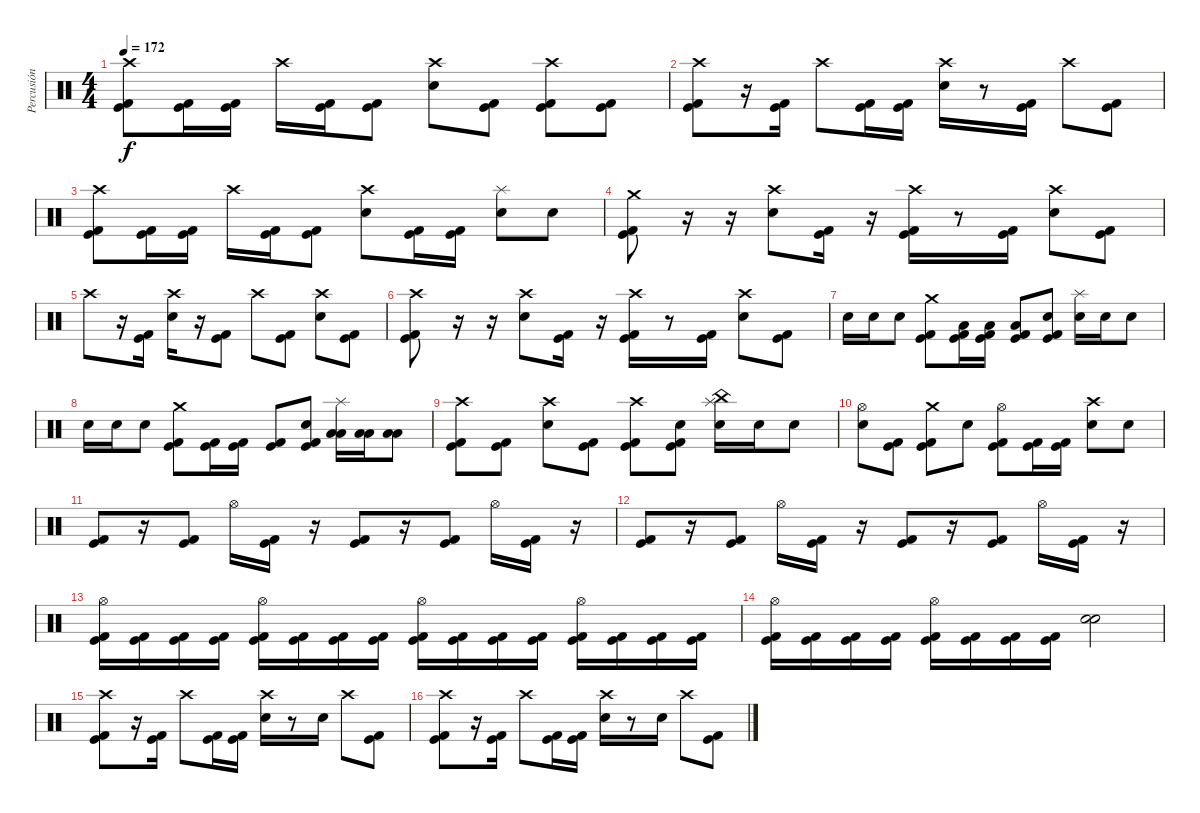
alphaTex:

\track ("Percusión" "Percusión") {instrument percussion}
\staff {score}
\articulation defaults
\ts (4 4)
\tempo 172
\clef neutral
\ks c
("Crash high (hit)" "Kick (hit)" "Kick (hit) 2").8{dy f} ("Kick (hit)" "Kick (hit) 2").16 ("Kick (hit)" "Kick (hit) 2").16 "Crash high (hit)".16 ("Kick (hit)" "Kick (hit) 2").16 ("Kick (hit)" "Kick (hit) 2").8 ("Crash high (hit)" "Electric Snare (hit)").8 ("Kick (hit)" "Kick (hit) 2").8 ("Crash high (hit)" "Kick (hit)" "Kick (hit) 2").8 ("Kick (hit)" "Kick (hit) 2").8 |
("Crash high (hit)" "Kick (hit)" "Kick (hit) 2").8 r.16 ("Kick (hit)" "Kick (hit) 2").16 "Crash high (hit)".8 ("Kick (hit)" "Kick (hit) 2").16 ("Kick (hit)" "Kick (hit) 2").16 ("Crash high (hit)" "Electric Snare (hit)").16 r.8 ("Kick (hit)" "Kick (hit) 2").16 "Crash high (hit)".8 ("Kick (hit)" "Kick (hit) 2").8 |
("Crash high (hit)" "Kick (hit)" "Kick (hit) 2").8 ("Kick (hit)" "Kick (hit) 2").16 ("Kick (hit)" "Kick (hit) 2").16 "Crash high (hit)".16 ("Kick (hit)" "Kick (hit) 2").16 ("Kick (hit)" "Kick (hit) 2").8 ("Crash high (hit)" "Electric Snare (hit)").8 ("Kick (hit)" "Kick (hit) 2").16 ("Kick (hit) 2" "Kick (hit)").16 ("Splash (hit)" "Electric Snare (hit)").8 "Electric Snare (hit)".8 |
("Crash medium (hit)" "Kick (hit)" "Kick (hit) 2").8 r.16 r.16 ("Crash high (hit)" "Electric Snare (hit)").8 ("Kick (hit) 2" "Kick (hit)").16 r.16 ("Crash high (hit)" "Kick (hit) 2" "Kick (hit)").16 r.8 ("Kick (hit)" "Kick (hit) 2").16 ("Crash high (hit)" "Electric Snare (hit)").8 ("Kick (hit)" "Kick (hit) 2").8 |
"Crash high (hit)".8 r.16 ("Kick (hit)" "Kick (hit) 2").16 ("Crash high (hit)" "Electric Snare (hit)").16 r.16 ("Kick (hit)" "Kick (hit) 2").8 "Crash high (hit)".8 ("Kick (hit)" "Kick (hit) 2").8 ("Crash high (hit)" "Electric Snare (hit)").8 ("Kick (hit)" "Kick (hit) 2").8 |
("Crash high (hit)" "Kick (hit)" "Kick (hit) 2").8 r.16 r.16 ("Crash high (hit)" "Electric Snare (hit)").8 ("Kick (hit) 2" "Kick (hit)").16 r.16 ("Crash high (hit)" "Kick (hit) 2" "Kick (hit)").16 r.8 ("Kick (hit)" "Kick (hit) 2").16 ("Crash high (hit)" "Electric Snare (hit)").8 ("Kick (hit)" "Kick (hit) 2").8 |
"Electric Snare (hit)".16 "Electric Snare (hit)".16 "Electric Snare (hit)".8 ("Crash medium (hit)" "Kick (hit) 2" "Kick (hit)").8 ("Low Tom (hit)" "Kick (hit)" "Kick (hit) 2").16 ("Low Tom (hit)" "Kick (hit)" "Kick (hit) 2").16 ("Low Tom (hit)" "Kick (hit)" "Kick (hit) 2").8 ("Electric Snare (hit)" "Kick (hit) 2" "Kick (hit)").8 ("Splash (hit)" "Electric Snare (hit)").16 "Electric Snare (hit)".16 "Electric Snare (hit)".8 |
"Electric Snare (hit)".16 "Electric Snare (hit)".16 "Electric Snare (hit)".8 ("Crash medium (hit)" "Kick (hit) 2" "Kick (hit)").8 ("Kick (hit)" "Kick (hit) 2").16 ("Kick (hit)" "Kick (hit) 2").16 ("Kick (hit)" "Kick (hit) 2").8 ("Electric Snare (hit)" "Kick (hit) 2" "Kick (hit)").8 ("Splash (hit)" "Low Tom (hit)" "Low Tom (hit)").16 ("Low Tom (hit)" "Low Tom (hit)").16 ("Low Floor Tom (hit)" "Low Floor Tom (hit)").8 |
("Crash high (hit)" "Kick (hit)" "Kick (hit) 2").8 ("Kick (hit)" "Kick (hit) 2").8 ("Crash high (hit)" "Electric Snare (hit)").8 ("Kick (hit)" "Kick (hit) 2").8 ("Crash high (hit)" "Kick (hit)" "Kick (hit) 2").8 ("Electric Snare (hit)" "Kick (hit)" "Kick (hit) 2").8 ("Splash (hit)" "China (hit)" "Electric Snare (hit)").16 "Electric Snare (hit)".16 "Electric Snare (hit)".8 |
("Hi-Hat (open)" "Electric Snare (hit)").8 ("Kick (hit)" "Kick (hit) 2").8 ("Crash medium (hit)" "Kick (hit)" "Kick (hit) 2").8 "Electric Snare (hit)".8 ("Hi-Hat (open)" "Kick (hit)" "Kick (hit) 2").8 ("Kick (hit)" "Kick (hit) 2").16 ("Kick (hit)" "Kick (hit) 2").16 ("Crash high (hit)" "Electric Snare (hit)").8 "Electric Snare (hit)".8 |
("Kick (hit)" "Kick (hit) 2").8 r.16 ("Kick (hit) 2" "Kick (hit)").8 "Hi-Hat (open)".16 ("Kick (hit)" "Kick (hit) 2").16 r.16 ("Kick (hit)" "Kick (hit) 2").8 r.16 ("Kick (hit)" "Kick (hit) 2").8 "Hi-Hat (open)".16 ("Kick (hit) 2" "Kick (hit)").16 r.16 |
("Kick (hit)" "Kick (hit) 2").8 r.16 ("Kick (hit) 2" "Kick (hit)").8 "Hi-Hat (open)".16 ("Kick (hit)" "Kick (hit) 2").16 r.16 ("Kick (hit)" "Kick (hit) 2").8 r.16 ("Kick (hit)" "Kick (hit) 2").8 "Hi-Hat (open)".16 ("Kick (hit) 2" "Kick (hit)").16 r.16 |
("Hi-Hat (open)" "Kick (hit)" "Kick (hit) 2").16 ("Kick (hit)" "Kick (hit) 2").16 ("Kick (hit)" "Kick (hit) 2").16 ("Kick (hit)" "Kick (hit) 2").16 ("Hi-Hat (open)" "Kick (hit)" "Kick (hit) 2").16 ("Kick (hit)" "Kick (hit) 2").16 ("Kick (hit)" "Kick (hit) 2").16 ("Kick (hit)" "Kick (hit) 2").16 ("Hi-Hat (open)" "Kick (hit)" "Kick (hit) 2").16 ("Kick (hit)" "Kick (hit) 2").16 ("Kick (hit)" "Kick (hit) 2").16 ("Kick (hit)" "Kick (hit) 2").16 ("Hi-Hat (open)" "Kick (hit)" "Kick (hit) 2").16 ("Kick (hit)" "Kick (hit) 2").16 ("Kick (hit)" "Kick (hit) 2").16 ("Kick (hit)" "Kick (hit) 2").16 |
("Hi-Hat (open)" "Kick (hit)" "Kick (hit) 2").16 ("Kick (hit)" "Kick (hit) 2").16 ("Kick (hit)" "Kick (hit) 2").16 ("Kick (hit)" "Kick (hit) 2").16 ("Hi-Hat (open)" "Kick (hit)" "Kick (hit) 2").16 ("Kick (hit)" "Kick (hit) 2").16 ("Kick (hit)" "Kick (hit) 2").16 ("Kick (hit)" "Kick (hit) 2").16 ("Electric Snare (hit)" "Electric Snare (hit)").2 |
("Crash high (hit)" "Kick (hit)" "Kick (hit) 2").8 r.16 ("Kick (hit)" "Kick (hit) 2").16 "Crash high (hit)".8 ("Kick (hit)" "Kick (hit) 2").16 ("Kick (hit)" "Kick (hit) 2").16 ("Crash high (hit)" "Electric Snare (hit)").16 r.8 "Electric Snare (hit)".16 "Crash high (hit)".8 ("Kick (hit)" "Kick (hit) 2").8 |
("Crash high (hit)" "Kick (hit)" "Kick (hit) 2").8 r.16 ("Kick (hit)" "Kick (hit) 2").16 "Crash high (hit)".8 ("Kick (hit)" "Kick (hit) 2").16 ("Kick (hit)" "Kick (hit) 2").16 ("Crash high (hit)" "Electric Snare (hit)").16 r.8 "Electric Snare (hit)".16 "Crash high (hit)".8 ("Kick (hit)" "Kick (hit) 2").8
